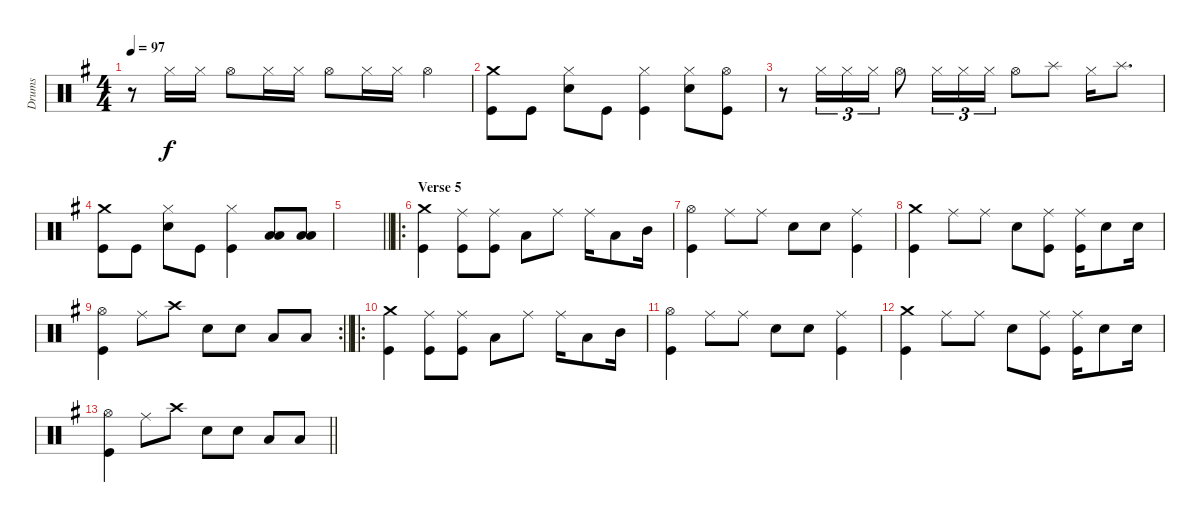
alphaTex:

\track ("Drums" "Drums") {instrument percussion}
\staff {score}
\articulation defaults
\ts (4 4)
\tempo 97
\clef neutral
\ks eminor
r.8{dy f} "Hi-Hat (closed)".16 "Hi-Hat (closed)".16 "Hi-Hat (open)".8 "Hi-Hat (closed)".16 "Hi-Hat (closed)".16 "Hi-Hat (open)".8 "Hi-Hat (closed)".16 "Hi-Hat (closed)".16 "Hi-Hat (open)".4 |
("Crash medium (hit)" "Kick (hit)").8 "Kick (hit)".8 ("Hi-Hat (closed)" "Snare (hit) 2").8 "Kick (hit)".8 ("Hi-Hat (closed)" "Kick (hit)").4 ("Hi-Hat (closed)" "Snare (hit) 2").8 ("Hi-Hat (open)" "Kick (hit)").8 |
r.8 "Hi-Hat (closed)".16{tu (3 2)} "Hi-Hat (closed)".16{tu (3 2)} "Hi-Hat (closed)".16{tu (3 2)} "Hi-Hat (open)".8 "Hi-Hat (closed)".16{tu (3 2)} "Hi-Hat (closed)".16{tu (3 2)} "Hi-Hat (closed)".16{tu (3 2)} "Hi-Hat (open)".8 "Splash (hit)".8 "Hi-Hat (closed)".16 "Splash (hit)".8{d} |
("Crash medium (hit)" "Kick (hit)").8 "Kick (hit)".8 ("Hi-Hat (closed)" "Snare (hit) 2").8 "Kick (hit)".8 ("Hi-Hat (closed)" "Kick (hit)").4 ("Low Floor Tom (hit)" "Low Tom (hit)").8 ("Low Floor Tom (hit)" "Low Tom (hit)").8 |
\barLineRight lightlight
|
\ro
\section ("" "Verse 5")
\ks g
("Crash medium (hit)" "Kick (hit)").4 ("Ride (middle)" "Kick (hit)").8 ("Ride (middle)" "Kick (hit)").8 "Low Tom (hit)".8 "Ride (middle)".8 "Ride (middle)".16 "Low Tom (hit)".8 "Mid Tom (hit)".16 |
("Hi-Hat (open)" "Kick (hit)").4 "Ride (middle)".8 "Ride (middle)".8 "Snare (hit) 2".8 "Snare (hit) 2".8 ("Ride (middle)" "Kick (hit)").4 |
("Crash medium (hit)" "Kick (hit)").4 "Ride (middle)".8 "Ride (middle)".8 "Snare (hit) 2".8 ("Ride (middle)" "Kick (hit)").8 ("Ride (middle)" "Kick (hit)").16 "Snare (hit) 2".8 "Snare (hit) 2".16 |
\rc 2
\barLineRight lightlight
("Hi-Hat (open)" "Kick (hit)").4 "Ride (middle)".8 "Crash high (hit)".8 "Snare (hit) 2".8 "Snare (hit) 2".8 "Low Tom (hit)".8 "Low Tom (hit)".8 |
\ro
("Crash medium (hit)" "Kick (hit)").4 ("Ride (middle)" "Kick (hit)").8 ("Ride (middle)" "Kick (hit)").8 "Low Tom (hit)".8 "Ride (middle)".8 "Ride (middle)".16 "Low Tom (hit)".8 "Mid Tom (hit)".16 |
("Hi-Hat (open)" "Kick (hit)").4 "Ride (middle)".8 "Ride (middle)".8 "Snare (hit) 2".8 "Snare (hit) 2".8 ("Ride (middle)" "Kick (hit)").4 |
("Crash medium (hit)" "Kick (hit)").4 "Ride (middle)".8 "Ride (middle)".8 "Snare (hit) 2".8 ("Ride (middle)" "Kick (hit)").8 ("Ride (middle)" "Kick (hit)").16 "Snare (hit) 2".8 "Snare (hit) 2".16 |
\barLineRight lightlight
("Hi-Hat (open)" "Kick (hit)").4 "Ride (middle)".8 "Crash high (hit)".8 "Snare (hit) 2".8 "Snare (hit) 2".8 "Low Tom (hit)".8 "Low Tom (hit)".8
